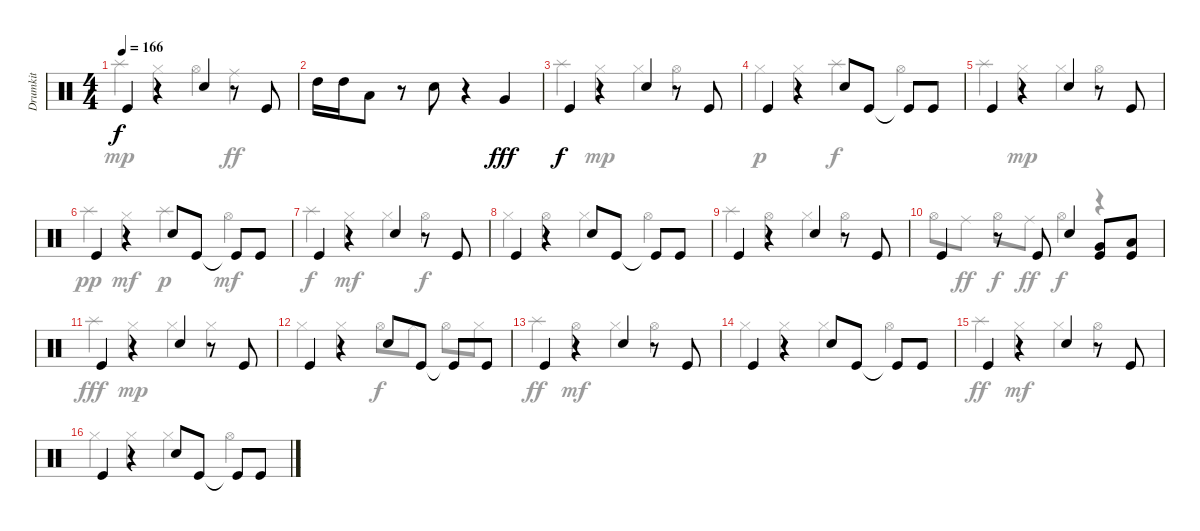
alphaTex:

\track ("Drumkit" "Drumkit") {instrument percussion}
\staff {score}
\articulation defaults
\voice
\ts (4 4)
\tempo 166
\clef neutral
\ks c "Kick (hit)".4{dy f}
r.4 "Snare (hit) 2".4 r.8 "Kick (hit)".8 |
"High Tom (hit)".16 "High Tom (hit)".16 "Low Tom (hit)".8 r.8 "Snare (hit) 2".8 r.4 "Very Low Tom (hit)".4{dy fff} |
"Kick (hit)".4{dy f} r.4 "Snare (hit) 2".4 r.8 "Kick (hit)".8 |
"Kick (hit)".4 r.4 "Snare (hit) 2".8 "Kick (hit)".8 "Kick (hit)"{t}.8 "Kick (hit)".8 |
"Kick (hit)".4 r.4 "Snare (hit) 2".4 r.8 "Kick (hit)".8 |
"Kick (hit)".4 r.4 "Snare (hit) 2".8 "Kick (hit)".8 "Kick (hit)"{t}.8 "Kick (hit)".8 |
"Kick (hit)".4 r.4 "Snare (hit) 2".4 r.8 "Kick (hit)".8 |
"Kick (hit)".4 r.4 "Snare (hit) 2".8 "Kick (hit)".8 "Kick (hit)"{t}.8 "Kick (hit)".8 |
"Kick (hit)".4 r.4 "Snare (hit) 2".4 r.8 "Kick (hit)".8 |
"Kick (hit)".4 r.8 "Kick (hit)".8 "Snare (hit) 2".4 ("Very Low Tom (hit)" "Kick (hit)").8 ("Low Floor Tom (hit)" "Kick (hit)").8 |
"Kick (hit)".4 r.4 "Snare (hit) 2".4 r.8 "Kick (hit)".8 |
"Kick (hit)".4 r.4 "Snare (hit) 2".8 "Kick (hit)".8 "Kick (hit)"{t}.8 "Kick (hit)".8 |
"Kick (hit)".4 r.4 "Snare (hit) 2".4 r.8 "Kick (hit)".8 |
"Kick (hit)".4 r.4 "Snare (hit) 2".8 "Kick (hit)".8 "Kick (hit)"{t}.8 "Kick (hit)".8 |
"Kick (hit)".4 r.4 "Snare (hit) 2".4 r.8 "Kick (hit)".8 |
"Kick (hit)".4 r.4 "Snare (hit) 2".8 "Kick (hit)".8 "Kick (hit)"{t}.8 "Kick (hit)".8
\voice
\clef neutral
\ottava regular
\simile none
\ks c "Splash (hit)".4{dy mp} "Hi-Hat (closed)".4 "Hi-Hat (open)".4 "Ride (middle)".4{dy ff}
|
|
"Splash (hit)".4 "Hi-Hat (closed)".4{dy mp} "Hi-Hat (closed)".4 "Hi-Hat (open)".4 |
"Hi-Hat (closed)".4{dy p} "Hi-Hat (closed)".4 "Splash (hit)".4{dy f} "Hi-Hat (open)".4 |
"Splash (hit)".4 "Hi-Hat (closed)".4{dy mp} "Hi-Hat (closed)".4 "Hi-Hat (open)".4 |
"Splash (hit)".4{dy pp} "Hi-Hat (closed)".4{dy mf} "Splash (hit)".4{dy p} "Hi-Hat (open)".4{dy mf} |
"Splash (hit)".4{dy f} "Hi-Hat (closed)".4{dy mf} "Hi-Hat (closed)".4 "Hi-Hat (open)".4{dy f} |
"Hi-Hat (closed)".4 "Hi-Hat (open)".4 "Hi-Hat (closed)".4 "Hi-Hat (open)".4 |
"Splash (hit)".4 "Hi-Hat (open)".4 "Hi-Hat (closed)".4 "Hi-Hat (open)".4 |
"Hi-Hat (open)".8 "Ride (middle)".8{dy ff} "Hi-Hat (open)".8{dy f} "Ride (middle)".8{dy ff} "Hi-Hat (open)".4{dy f} r.4 |
"Splash (hit)".4{dy fff} "Hi-Hat (closed)".4{dy mp} "Hi-Hat (closed)".4 "Hi-Hat (closed)".4 |
"Hi-Hat (closed)".4 "Hi-Hat (closed)".4 "Hi-Hat (open)".8{dy f} "Hi-Hat (closed)".8 "Hi-Hat (open)".8 "Hi-Hat (closed)".8 |
"Splash (hit)".4{dy ff} "Hi-Hat (open)".4{dy mf} "Hi-Hat (closed)".4 "Hi-Hat (open)".4 |
"Hi-Hat (closed)".4 "Hi-Hat (closed)".4 "Hi-Hat (closed)".4 "Hi-Hat (open)".4 |
"Splash (hit)".4{dy ff} "Hi-Hat (closed)".4{dy mf} "Hi-Hat (closed)".4 "Hi-Hat (open)".4 |
"Hi-Hat (closed)".4 "Hi-Hat (closed)".4 "Hi-Hat (closed)".4 "Hi-Hat (open)".4
